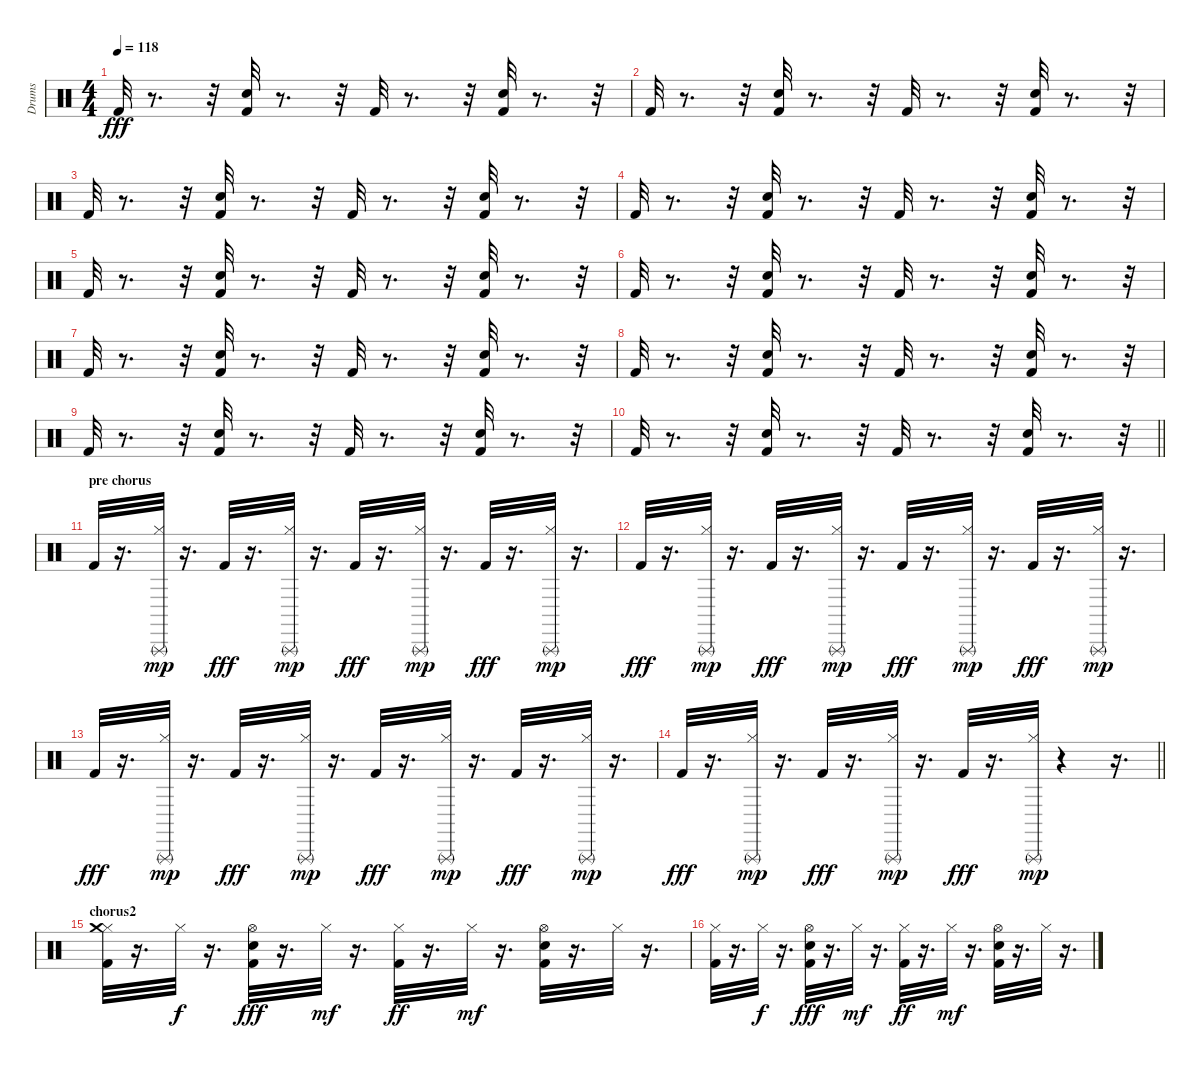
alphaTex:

\track ("Drums" "Drums") {instrument percussion}
\staff {score}
\articulation defaults
\ts (4 4)
\tempo 118
\clef neutral
\ks c "Kick (hit) 2".32{dy fff}
r.8{d} r.32 ("Kick (hit) 2" "Electric Snare (hit)").32 r.8{d} r.32 "Kick (hit) 2".32 r.8{d} r.32 ("Kick (hit) 2" "Electric Snare (hit)").32 r.8{d} r.32 |
"Kick (hit) 2".32 r.8{d} r.32 ("Kick (hit) 2" "Electric Snare (hit)").32 r.8{d} r.32 "Kick (hit) 2".32 r.8{d} r.32 ("Kick (hit) 2" "Electric Snare (hit)").32 r.8{d} r.32 |
"Kick (hit) 2".32 r.8{d} r.32 ("Kick (hit) 2" "Electric Snare (hit)").32 r.8{d} r.32 "Kick (hit) 2".32 r.8{d} r.32 ("Kick (hit) 2" "Electric Snare (hit)").32 r.8{d} r.32 |
"Kick (hit) 2".32 r.8{d} r.32 ("Kick (hit) 2" "Electric Snare (hit)").32 r.8{d} r.32 "Kick (hit) 2".32 r.8{d} r.32 ("Kick (hit) 2" "Electric Snare (hit)").32 r.8{d} r.32 |
"Kick (hit) 2".32 r.8{d} r.32 ("Kick (hit) 2" "Electric Snare (hit)").32 r.8{d} r.32 "Kick (hit) 2".32 r.8{d} r.32 ("Kick (hit) 2" "Electric Snare (hit)").32 r.8{d} r.32 |
"Kick (hit) 2".32 r.8{d} r.32 ("Kick (hit) 2" "Electric Snare (hit)").32 r.8{d} r.32 "Kick (hit) 2".32 r.8{d} r.32 ("Kick (hit) 2" "Electric Snare (hit)").32 r.8{d} r.32 |
"Kick (hit) 2".32 r.8{d} r.32 ("Kick (hit) 2" "Electric Snare (hit)").32 r.8{d} r.32 "Kick (hit) 2".32 r.8{d} r.32 ("Kick (hit) 2" "Electric Snare (hit)").32 r.8{d} r.32 |
"Kick (hit) 2".32 r.8{d} r.32 ("Kick (hit) 2" "Electric Snare (hit)").32 r.8{d} r.32 "Kick (hit) 2".32 r.8{d} r.32 ("Kick (hit) 2" "Electric Snare (hit)").32 r.8{d} r.32 |
"Kick (hit) 2".32 r.8{d} r.32 ("Kick (hit) 2" "Electric Snare (hit)").32 r.8{d} r.32 "Kick (hit) 2".32 r.8{d} r.32 ("Kick (hit) 2" "Electric Snare (hit)").32 r.8{d} r.32 |
\barLineRight lightlight "Kick (hit) 2".32
r.8{d} r.32 ("Kick (hit) 2" "Electric Snare (hit)").32 r.8{d} r.32 "Kick (hit) 2".32 r.8{d} r.32 ("Kick (hit) 2" "Electric Snare (hit)").32 r.8{d} r.32 |
\section ("" "pre chorus")
"Kick (hit) 2".32 r.16{d} ("Hi-Hat (closed)" "Triangle (rnute)").32{dy mp} r.16{d} "Kick (hit) 2".32{dy fff} r.16{d} ("Hi-Hat (closed)" "Triangle (rnute)").32{dy mp} r.16{d} "Kick (hit) 2".32{dy fff} r.16{d} ("Hi-Hat (closed)" "Triangle (rnute)").32{dy mp} r.16{d} "Kick (hit) 2".32{dy fff} r.16{d} ("Hi-Hat (closed)" "Triangle (rnute)").32{dy mp} r.16{d} |
"Kick (hit) 2".32{dy fff} r.16{d} ("Hi-Hat (closed)" "Triangle (rnute)").32{dy mp} r.16{d} "Kick (hit) 2".32{dy fff} r.16{d} ("Hi-Hat (closed)" "Triangle (rnute)").32{dy mp} r.16{d} "Kick (hit) 2".32{dy fff} r.16{d} ("Hi-Hat (closed)" "Triangle (rnute)").32{dy mp} r.16{d} "Kick (hit) 2".32{dy fff} r.16{d} ("Hi-Hat (closed)" "Triangle (rnute)").32{dy mp} r.16{d} |
"Kick (hit) 2".32{dy fff} r.16{d} ("Hi-Hat (closed)" "Triangle (rnute)").32{dy mp} r.16{d} "Kick (hit) 2".32{dy fff} r.16{d} ("Hi-Hat (closed)" "Triangle (rnute)").32{dy mp} r.16{d} "Kick (hit) 2".32{dy fff} r.16{d} ("Hi-Hat (closed)" "Triangle (rnute)").32{dy mp} r.16{d} "Kick (hit) 2".32{dy fff} r.16{d} ("Hi-Hat (closed)" "Triangle (rnute)").32{dy mp} r.16{d} |
\barLineRight lightlight "Kick (hit) 2".32{dy fff}
r.16{d} ("Hi-Hat (closed)" "Triangle (rnute)").32{dy mp} r.16{d} "Kick (hit) 2".32{dy fff} r.16{d} ("Hi-Hat (closed)" "Triangle (rnute)").32{dy mp} r.16{d} "Kick (hit) 2".32{dy fff} r.16{d} ("Hi-Hat (closed)" "Triangle (rnute)").32{dy mp} r.4 r.16{d} |
\section ("" "chorus2")
("Kick (hit) 2" "Hi-Hat (closed)" "Crash medium (hit)").32 r.16{d} "Hi-Hat (closed)".32{dy f} r.16{d} ("Kick (hit) 2" "Electric Snare (hit)" "Hi-Hat (open)").32{dy fff} r.16{d} "Hi-Hat (closed)".32{dy mf} r.16{d} ("Kick (hit) 2" "Hi-Hat (closed)").32{dy ff} r.16{d} "Hi-Hat (closed)".32{dy mf} r.16{d} ("Kick (hit) 2" "Electric Snare (hit)" "Hi-Hat (open)").32 r.16{d} "Hi-Hat (closed)".32 r.16{d} |
("Kick (hit) 2" "Hi-Hat (closed)").32 r.16{d} "Hi-Hat (closed)".32{dy f} r.16{d} ("Kick (hit) 2" "Electric Snare (hit)" "Hi-Hat (open)").32{dy fff} r.16{d} "Hi-Hat (closed)".32{dy mf} r.16{d} ("Kick (hit) 2" "Hi-Hat (closed)").32{dy ff} r.16{d} "Hi-Hat (closed)".32{dy mf} r.16{d} ("Kick (hit) 2" "Electric Snare (hit)" "Hi-Hat (open)").32 r.16{d} "Hi-Hat (closed)".32 r.16{d}
